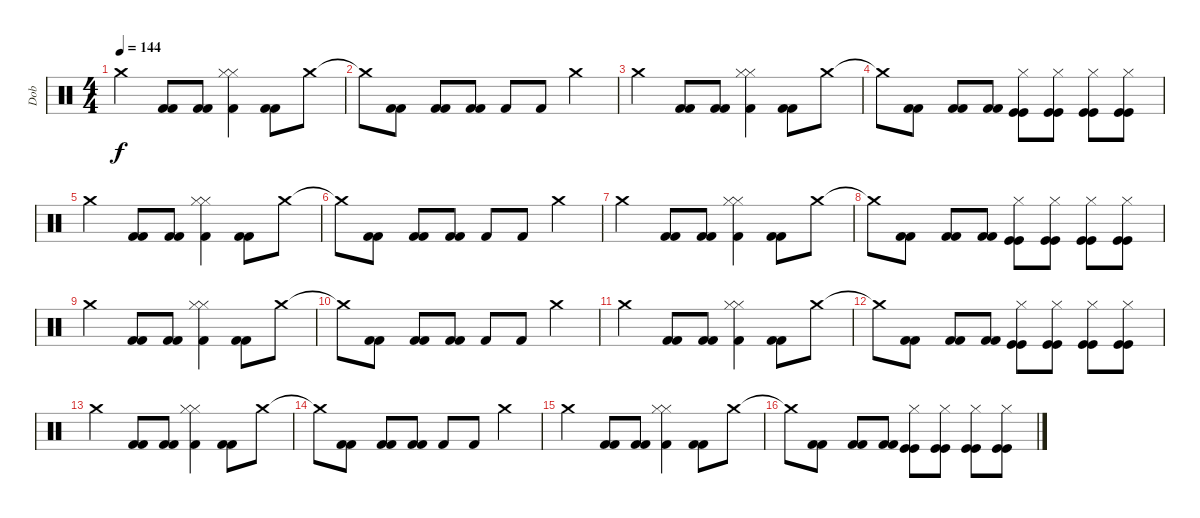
\track ("Dob" "Dob") {instrument percussion}
\staff {score}
\articulation defaults
\ts (4 4)
\tempo 144
\clef neutral
\ks c "Crash medium (hit)".4{dy f}
("Kick (hit) 2" "Kick (hit) 2").8 ("Kick (hit) 2" "Kick (hit) 2").8 ("Hi-Hat (closed)" "Hi-Hat (closed)" "Kick (hit) 2").4 ("Kick (hit) 2" "Kick (hit) 2").8 "Crash medium (hit)".8 |
"Crash medium (hit)"{t}.8 ("Kick (hit) 2" "Kick (hit) 2").8 ("Kick (hit) 2" "Kick (hit) 2").8 ("Kick (hit) 2" "Kick (hit) 2").8 "Kick (hit) 2".8 "Kick (hit) 2".8 "Crash medium (hit)".4 |
"Crash medium (hit)".4 ("Kick (hit) 2" "Kick (hit) 2").8 ("Kick (hit) 2" "Kick (hit) 2").8 ("Hi-Hat (closed)" "Hi-Hat (closed)" "Kick (hit) 2").4 ("Kick (hit) 2" "Kick (hit) 2").8 "Crash medium (hit)".8 |
"Crash medium (hit)"{t}.8 ("Kick (hit) 2" "Kick (hit) 2").8 ("Kick (hit) 2" "Kick (hit) 2").8 ("Kick (hit) 2" "Kick (hit) 2").8 ("Hi-Hat (closed)" "Kick (hit)" "Kick (hit)").8 ("Hi-Hat (closed)" "Kick (hit)" "Kick (hit)").8 ("Hi-Hat (closed)" "Kick (hit)" "Kick (hit)").8 ("Hi-Hat (closed)" "Kick (hit)" "Kick (hit)").8 |
"Crash medium (hit)".4 ("Kick (hit) 2" "Kick (hit) 2").8 ("Kick (hit) 2" "Kick (hit) 2").8 ("Hi-Hat (closed)" "Hi-Hat (closed)" "Kick (hit) 2").4 ("Kick (hit) 2" "Kick (hit) 2").8 "Crash medium (hit)".8 |
"Crash medium (hit)"{t}.8 ("Kick (hit) 2" "Kick (hit) 2").8 ("Kick (hit) 2" "Kick (hit) 2").8 ("Kick (hit) 2" "Kick (hit) 2").8 "Kick (hit) 2".8 "Kick (hit) 2".8 "Crash medium (hit)".4 |
"Crash medium (hit)".4 ("Kick (hit) 2" "Kick (hit) 2").8 ("Kick (hit) 2" "Kick (hit) 2").8 ("Hi-Hat (closed)" "Hi-Hat (closed)" "Kick (hit) 2").4 ("Kick (hit) 2" "Kick (hit) 2").8 "Crash medium (hit)".8 |
"Crash medium (hit)"{t}.8 ("Kick (hit) 2" "Kick (hit) 2").8 ("Kick (hit) 2" "Kick (hit) 2").8 ("Kick (hit) 2" "Kick (hit) 2").8 ("Hi-Hat (closed)" "Kick (hit)" "Kick (hit)").8 ("Hi-Hat (closed)" "Kick (hit)" "Kick (hit)").8 ("Hi-Hat (closed)" "Kick (hit)" "Kick (hit)").8 ("Hi-Hat (closed)" "Kick (hit)" "Kick (hit)").8 |
"Crash medium (hit)".4 ("Kick (hit) 2" "Kick (hit) 2").8 ("Kick (hit) 2" "Kick (hit) 2").8 ("Hi-Hat (closed)" "Hi-Hat (closed)" "Kick (hit) 2").4 ("Kick (hit) 2" "Kick (hit) 2").8 "Crash medium (hit)".8 |
"Crash medium (hit)"{t}.8 ("Kick (hit) 2" "Kick (hit) 2").8 ("Kick (hit) 2" "Kick (hit) 2").8 ("Kick (hit) 2" "Kick (hit) 2").8 "Kick (hit) 2".8 "Kick (hit) 2".8 "Crash medium (hit)".4 |
"Crash medium (hit)".4 ("Kick (hit) 2" "Kick (hit) 2").8 ("Kick (hit) 2" "Kick (hit) 2").8 ("Hi-Hat (closed)" "Hi-Hat (closed)" "Kick (hit) 2").4 ("Kick (hit) 2" "Kick (hit) 2").8 "Crash medium (hit)".8 |
"Crash medium (hit)"{t}.8 ("Kick (hit) 2" "Kick (hit) 2").8 ("Kick (hit) 2" "Kick (hit) 2").8 ("Kick (hit) 2" "Kick (hit) 2").8 ("Hi-Hat (closed)" "Kick (hit)" "Kick (hit)").8 ("Hi-Hat (closed)" "Kick (hit)" "Kick (hit)").8 ("Hi-Hat (closed)" "Kick (hit)" "Kick (hit)").8 ("Hi-Hat (closed)" "Kick (hit)" "Kick (hit)").8 |
"Crash medium (hit)".4 ("Kick (hit) 2" "Kick (hit) 2").8 ("Kick (hit) 2" "Kick (hit) 2").8 ("Hi-Hat (closed)" "Hi-Hat (closed)" "Kick (hit) 2").4 ("Kick (hit) 2" "Kick (hit) 2").8 "Crash medium (hit)".8 |
"Crash medium (hit)"{t}.8 ("Kick (hit) 2" "Kick (hit) 2").8 ("Kick (hit) 2" "Kick (hit) 2").8 ("Kick (hit) 2" "Kick (hit) 2").8 "Kick (hit) 2".8 "Kick (hit) 2".8 "Crash medium (hit)".4 |
"Crash medium (hit)".4 ("Kick (hit) 2" "Kick (hit) 2").8 ("Kick (hit) 2" "Kick (hit) 2").8 ("Hi-Hat (closed)" "Hi-Hat (closed)" "Kick (hit) 2").4 ("Kick (hit) 2" "Kick (hit) 2").8 "Crash medium (hit)".8 |
"Crash medium (hit)"{t}.8 ("Kick (hit) 2" "Kick (hit) 2").8 ("Kick (hit) 2" "Kick (hit) 2").8 ("Kick (hit) 2" "Kick (hit) 2").8 ("Hi-Hat (closed)" "Kick (hit)" "Kick (hit)").8 ("Hi-Hat (closed)" "Kick (hit)" "Kick (hit)").8 ("Hi-Hat (closed)" "Kick (hit)" "Kick (hit)").8 ("Hi-Hat (closed)" "Kick (hit)" "Kick (hit)").8
